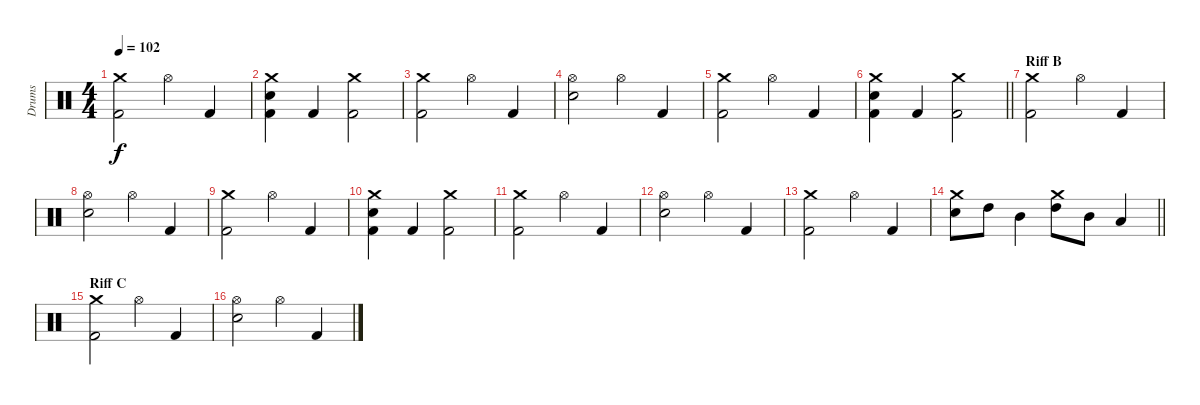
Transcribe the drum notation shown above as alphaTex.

\track ("Drums" "Drums") {instrument percussion}
\staff {score}
\articulation defaults
\ts (4 4)
\tempo 102
\clef neutral
\ks c
("Crash medium (hit)" "Kick (hit) 2").2{dy f} "Hi-Hat (open)".4 "Kick (hit) 2".4 |
("Crash medium (hit)" "Electric Snare (hit)" "Kick (hit) 2").4 "Kick (hit) 2".4 ("Crash medium (hit)" "Kick (hit) 2").2 |
("Crash medium (hit)" "Kick (hit) 2").2 "Hi-Hat (open)".4 "Kick (hit) 2".4 |
("Hi-Hat (open)" "Electric Snare (hit)").2 "Hi-Hat (open)".4 "Kick (hit) 2".4 |
("Crash medium (hit)" "Kick (hit) 2").2 "Hi-Hat (open)".4 "Kick (hit) 2".4 |
\barLineRight lightlight
("Crash medium (hit)" "Electric Snare (hit)" "Kick (hit) 2").4 "Kick (hit) 2".4 ("Crash medium (hit)" "Kick (hit) 2").2 |
\section ("" "Riff B")
("Crash medium (hit)" "Kick (hit) 2").2 "Hi-Hat (open)".4 "Kick (hit) 2".4 |
("Hi-Hat (open)" "Electric Snare (hit)").2 "Hi-Hat (open)".4 "Kick (hit) 2".4 |
("Crash medium (hit)" "Kick (hit) 2").2 "Hi-Hat (open)".4 "Kick (hit) 2".4 |
("Crash medium (hit)" "Electric Snare (hit)" "Kick (hit) 2").4 "Kick (hit) 2".4 ("Crash medium (hit)" "Kick (hit) 2").2 |
("Crash medium (hit)" "Kick (hit) 2").2 "Hi-Hat (open)".4 "Kick (hit) 2".4 |
("Hi-Hat (open)" "Electric Snare (hit)").2 "Hi-Hat (open)".4 "Kick (hit) 2".4 |
("Crash medium (hit)" "Kick (hit) 2").2 "Hi-Hat (open)".4 "Kick (hit) 2".4 |
\barLineRight lightlight
("Crash medium (hit)" "Electric Snare (hit)").8 "High Tom (hit)".8 "Mid Tom (hit)".4 ("Crash medium (hit)" "High Tom (hit)").8 "Mid Tom (hit)".8 "Low Tom (hit)".4 |
\section ("" "Riff C")
("Crash medium (hit)" "Kick (hit) 2").2 "Hi-Hat (open)".4 "Kick (hit) 2".4 |
("Hi-Hat (open)" "Electric Snare (hit)").2 "Hi-Hat (open)".4 "Kick (hit) 2".4
